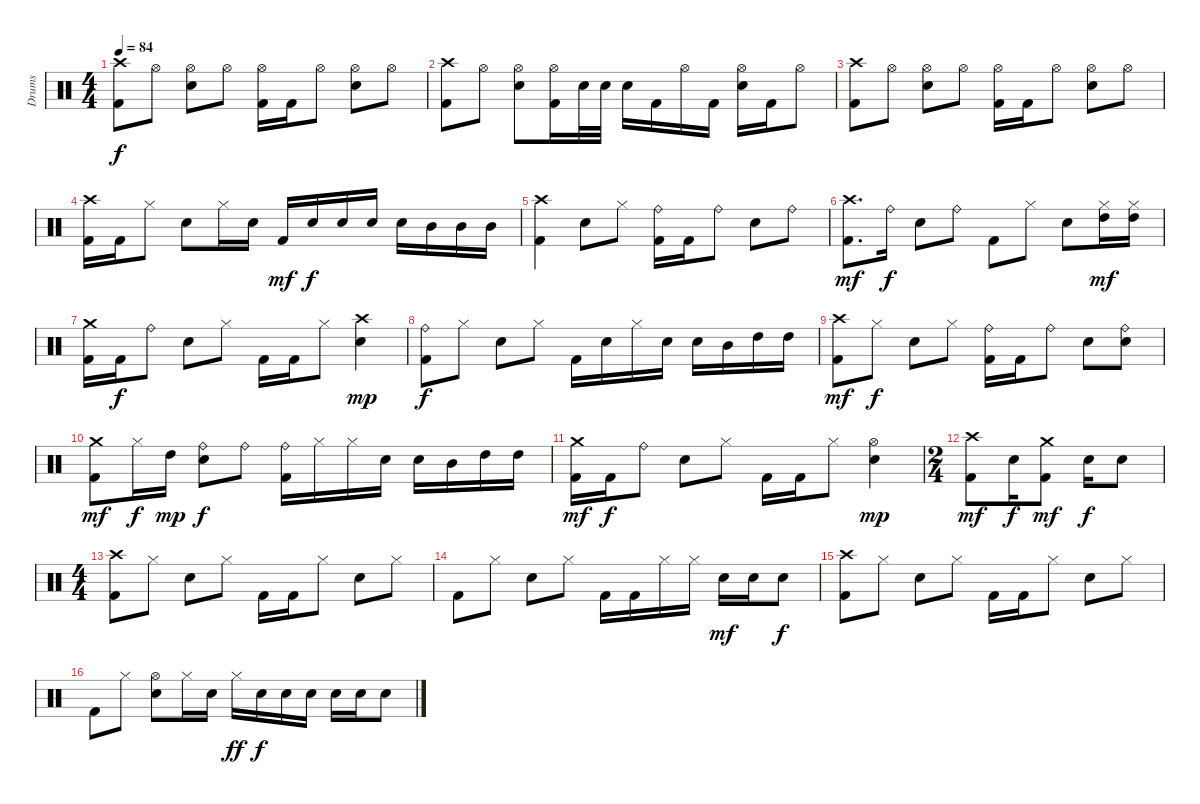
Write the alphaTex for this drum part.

\track ("Drums" "Drums") {instrument percussion}
\staff {score}
\articulation defaults
\ts (4 4)
\tempo 84
\clef neutral
\ks c
("Kick (hit) 2" "Crash high (hit)").8{dy f} "Hi-Hat (open)".8 ("Snare (hit) 2" "Hi-Hat (open)").8 "Hi-Hat (open)".8 ("Kick (hit) 2" "Hi-Hat (open)").16 "Kick (hit) 2".16 "Hi-Hat (open)".8 ("Snare (hit) 2" "Hi-Hat (open)").8 "Hi-Hat (open)".8 |
("Kick (hit) 2" "Crash high (hit)").8 "Hi-Hat (open)".8 ("Snare (hit) 2" "Hi-Hat (open)").8 ("Kick (hit) 2" "Hi-Hat (open)").16 "Snare (hit) 2".32 "Snare (hit) 2".32 "Snare (hit) 2".16 "Kick (hit) 2".16 "Hi-Hat (open)".16 "Kick (hit) 2".16 ("Snare (hit) 2" "Hi-Hat (open)").16 "Kick (hit) 2".16 "Hi-Hat (open)".8 |
("Kick (hit) 2" "Crash high (hit)").8 "Hi-Hat (open)".8 ("Snare (hit) 2" "Hi-Hat (open)").8 "Hi-Hat (open)".8 ("Kick (hit) 2" "Hi-Hat (open)").16 "Kick (hit) 2".16 "Hi-Hat (open)".8 ("Snare (hit) 2" "Hi-Hat (open)").8 "Hi-Hat (open)".8 |
("Kick (hit) 2" "Crash high (hit)").16 "Kick (hit) 2".16 "Hi-Hat (closed)".8 "Snare (hit) 2".8 "Hi-Hat (closed)".16 "Snare (hit) 2".16 "Kick (hit) 2".16{dy mf} "Snare (hit) 2".16{dy f} "Snare (hit) 2".16 "Snare (hit) 2".16 "Snare (hit) 2".16 "Mid Tom (hit)".16 "Mid Tom (hit)".16 "Mid Tom (hit)".16 |
("Kick (hit) 2" "Crash high (hit)").4 "Snare (hit) 2".8 "Hi-Hat (closed)".8 ("Kick (hit) 2" "Ride (bell)").16 "Kick (hit) 2".16 "Ride (bell)".8 "Snare (hit) 2".8 "Ride (bell)".8 |
("Kick (hit) 2" "Crash high (hit)").8{d dy mf} "Ride (bell)".16{dy f} "Snare (hit) 2".8 "Ride (bell)".8 "Kick (hit) 2".8 "Hi-Hat (closed)".8 "Snare (hit) 2".8 ("Hi-Hat (closed)" "High Tom (hit)").16{dy mf} ("Hi-Hat (closed)" "High Tom (hit)").16 |
("Kick (hit) 2" "Crash medium (hit)").16 "Kick (hit) 2".16{dy f} "Ride (bell)".8 "Snare (hit) 2".8 "Hi-Hat (closed)".8 "Kick (hit) 2".16 "Kick (hit) 2".16 "Hi-Hat (closed)".8 ("Snare (hit) 2" "Crash high (hit)").4{dy mp} |
("Kick (hit) 2" "Ride (bell)").8{dy f} "Hi-Hat (closed)".8 "Snare (hit) 2".8 "Hi-Hat (closed)".8 "Kick (hit) 2".16 "Snare (hit) 2".16 "Hi-Hat (closed)".16 "Snare (hit) 2".16 "Snare (hit) 2".16 "Mid Tom (hit)".16 "High Tom (hit)".16 "High Tom (hit)".16 |
("Kick (hit) 2" "Crash high (hit)").8{dy mf} "Hi-Hat (closed)".8{dy f} "Snare (hit) 2".8 "Hi-Hat (closed)".8 ("Kick (hit) 2" "Ride (bell)").16 "Kick (hit) 2".16 "Ride (bell)".8 "Snare (hit) 2".8 ("Snare (hit) 2" "Ride (bell)").8 |
("Kick (hit) 2" "Crash medium (hit)").8{dy mf} "Hi-Hat (closed)".16{dy f} "High Tom (hit)".16{dy mp} ("Snare (hit) 2" "Ride (bell)").8{dy f} "Ride (bell)".8 ("Kick (hit) 2" "Ride (bell)").16 "Hi-Hat (closed)".16 "Hi-Hat (closed)".16 "Snare (hit) 2".16 "Snare (hit) 2".16 "Mid Tom (hit)".16 "High Tom (hit)".16 "High Tom (hit)".16 |
("Kick (hit) 2" "Crash medium (hit)").16{dy mf} "Kick (hit) 2".16{dy f} "Ride (bell)".8 "Snare (hit) 2".8 "Hi-Hat (closed)".8 "Kick (hit) 2".16 "Kick (hit) 2".16 "Hi-Hat (closed)".8 ("Snare (hit) 2" "Hi-Hat (open)").4{dy mp} |
\ts (2 4)
("Kick (hit) 2" "Crash high (hit)").8{dy mf} "Snare (hit) 2".16{dy f} ("Kick (hit) 2" "Crash medium (hit)").8{dy mf} "Snare (hit) 2".16{dy f} "Snare (hit) 2".8 |
\ts (4 4)
("Kick (hit) 2" "Crash high (hit)").8 "Hi-Hat (closed)".8 "Snare (hit) 2".8 "Hi-Hat (closed)".8 "Kick (hit) 2".16 "Kick (hit) 2".16 "Hi-Hat (closed)".8 "Snare (hit) 2".8 "Hi-Hat (closed)".8 |
"Kick (hit) 2".8 "Hi-Hat (closed)".8 "Snare (hit) 2".8 "Hi-Hat (closed)".8 "Kick (hit) 2".16 "Kick (hit) 2".16 "Hi-Hat (closed)".16 "Hi-Hat (closed)".16 "Snare (hit) 2".16{dy mf} "Snare (hit) 2".16 "Snare (hit) 2".8{dy f} |
("Kick (hit) 2" "Crash high (hit)").8 "Hi-Hat (closed)".8 "Snare (hit) 2".8 "Hi-Hat (closed)".8 "Kick (hit) 2".16 "Kick (hit) 2".16 "Hi-Hat (closed)".8 "Snare (hit) 2".8 "Hi-Hat (closed)".8 |
"Kick (hit) 2".8 "Hi-Hat (closed)".8 ("Snare (hit) 2" "Hi-Hat (open)").8 "Hi-Hat (closed)".16 "Snare (hit) 2".16 "Hi-Hat (closed)".16{dy ff} "Snare (hit) 2".16{dy f} "Snare (hit) 2".16 "Snare (hit) 2".16 "Snare (hit) 2".16 "Snare (hit) 2".16 "Snare (hit) 2".8
